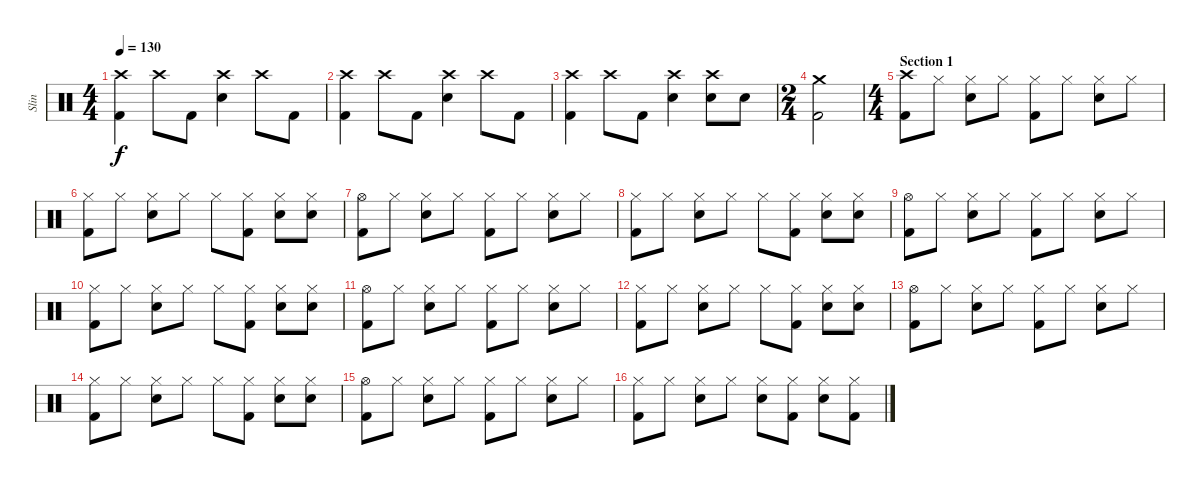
\track ("Slin" "Slin") {instrument percussion}
\staff {score}
\articulation defaults
\ts (4 4)
\tempo 130
\clef neutral
\ks c
("Crash high (hit)" "Kick (hit) 2").4{dy f} "Crash high (hit)".8 "Kick (hit) 2".8 ("Crash high (hit)" "Snare (hit) 2").4 "Crash high (hit)".8 "Kick (hit) 2".8 |
("Crash high (hit)" "Kick (hit) 2").4 "Crash high (hit)".8 "Kick (hit) 2".8 ("Crash high (hit)" "Snare (hit) 2").4 "Crash high (hit)".8 "Kick (hit) 2".8 |
("Crash high (hit)" "Kick (hit) 2").4 "Crash high (hit)".8 "Kick (hit) 2".8 ("Crash high (hit)" "Snare (hit) 2").4 ("Crash high (hit)" "Snare (hit) 2").8 "Snare (hit) 2".8 |
\ts (2 4)
("Crash medium (hit)" "Kick (hit) 2").2 |
\ts (4 4)
\section ("" "Section 1")
("Crash high (hit)" "Kick (hit) 2").8 "Hi-Hat (closed)".8 ("Hi-Hat (closed)" "Snare (hit) 2").8 "Hi-Hat (closed)".8 ("Hi-Hat (closed)" "Kick (hit) 2").8 "Hi-Hat (closed)".8 ("Hi-Hat (closed)" "Snare (hit) 2").8 "Hi-Hat (closed)".8 |
("Hi-Hat (closed)" "Kick (hit) 2").8 "Hi-Hat (closed)".8 ("Hi-Hat (closed)" "Snare (hit) 2").8 "Hi-Hat (closed)".8 "Hi-Hat (closed)".8 ("Hi-Hat (closed)" "Kick (hit) 2").8 ("Hi-Hat (closed)" "Snare (hit) 2").8 ("Hi-Hat (closed)" "Snare (hit) 2").8 |
("Hi-Hat (open)" "Kick (hit) 2").8 "Hi-Hat (closed)".8 ("Hi-Hat (closed)" "Snare (hit) 2").8 "Hi-Hat (closed)".8 ("Hi-Hat (closed)" "Kick (hit) 2").8 "Hi-Hat (closed)".8 ("Hi-Hat (closed)" "Snare (hit) 2").8 "Hi-Hat (closed)".8 |
("Hi-Hat (closed)" "Kick (hit) 2").8 "Hi-Hat (closed)".8 ("Hi-Hat (closed)" "Snare (hit) 2").8 "Hi-Hat (closed)".8 "Hi-Hat (closed)".8 ("Hi-Hat (closed)" "Kick (hit) 2").8 ("Hi-Hat (closed)" "Snare (hit) 2").8 ("Hi-Hat (closed)" "Snare (hit) 2").8 |
("Hi-Hat (open)" "Kick (hit) 2").8 "Hi-Hat (closed)".8 ("Hi-Hat (closed)" "Snare (hit) 2").8 "Hi-Hat (closed)".8 ("Hi-Hat (closed)" "Kick (hit) 2").8 "Hi-Hat (closed)".8 ("Hi-Hat (closed)" "Snare (hit) 2").8 "Hi-Hat (closed)".8 |
("Hi-Hat (closed)" "Kick (hit) 2").8 "Hi-Hat (closed)".8 ("Hi-Hat (closed)" "Snare (hit) 2").8 "Hi-Hat (closed)".8 "Hi-Hat (closed)".8 ("Hi-Hat (closed)" "Kick (hit) 2").8 ("Hi-Hat (closed)" "Snare (hit) 2").8 ("Hi-Hat (closed)" "Snare (hit) 2").8 |
("Hi-Hat (open)" "Kick (hit) 2").8 "Hi-Hat (closed)".8 ("Hi-Hat (closed)" "Snare (hit) 2").8 "Hi-Hat (closed)".8 ("Hi-Hat (closed)" "Kick (hit) 2").8 "Hi-Hat (closed)".8 ("Hi-Hat (closed)" "Snare (hit) 2").8 "Hi-Hat (closed)".8 |
("Hi-Hat (closed)" "Kick (hit) 2").8 "Hi-Hat (closed)".8 ("Hi-Hat (closed)" "Snare (hit) 2").8 "Hi-Hat (closed)".8 "Hi-Hat (closed)".8 ("Hi-Hat (closed)" "Kick (hit) 2").8 ("Hi-Hat (closed)" "Snare (hit) 2").8 ("Hi-Hat (closed)" "Snare (hit) 2").8 |
("Hi-Hat (open)" "Kick (hit) 2").8 "Hi-Hat (closed)".8 ("Hi-Hat (closed)" "Snare (hit) 2").8 "Hi-Hat (closed)".8 ("Hi-Hat (closed)" "Kick (hit) 2").8 "Hi-Hat (closed)".8 ("Hi-Hat (closed)" "Snare (hit) 2").8 "Hi-Hat (closed)".8 |
("Hi-Hat (closed)" "Kick (hit) 2").8 "Hi-Hat (closed)".8 ("Hi-Hat (closed)" "Snare (hit) 2").8 "Hi-Hat (closed)".8 "Hi-Hat (closed)".8 ("Hi-Hat (closed)" "Kick (hit) 2").8 ("Hi-Hat (closed)" "Snare (hit) 2").8 ("Hi-Hat (closed)" "Snare (hit) 2").8 |
("Hi-Hat (open)" "Kick (hit) 2").8 "Hi-Hat (closed)".8 ("Hi-Hat (closed)" "Snare (hit) 2").8 "Hi-Hat (closed)".8 ("Hi-Hat (closed)" "Kick (hit) 2").8 "Hi-Hat (closed)".8 ("Hi-Hat (closed)" "Snare (hit) 2").8 "Hi-Hat (closed)".8 |
("Hi-Hat (closed)" "Kick (hit) 2").8 "Hi-Hat (closed)".8 ("Hi-Hat (closed)" "Snare (hit) 2").8 "Hi-Hat (closed)".8 ("Hi-Hat (closed)" "Snare (hit) 2").8 ("Hi-Hat (closed)" "Kick (hit) 2").8 ("Hi-Hat (closed)" "Snare (hit) 2").8 ("Hi-Hat (closed)" "Kick (hit) 2").8
